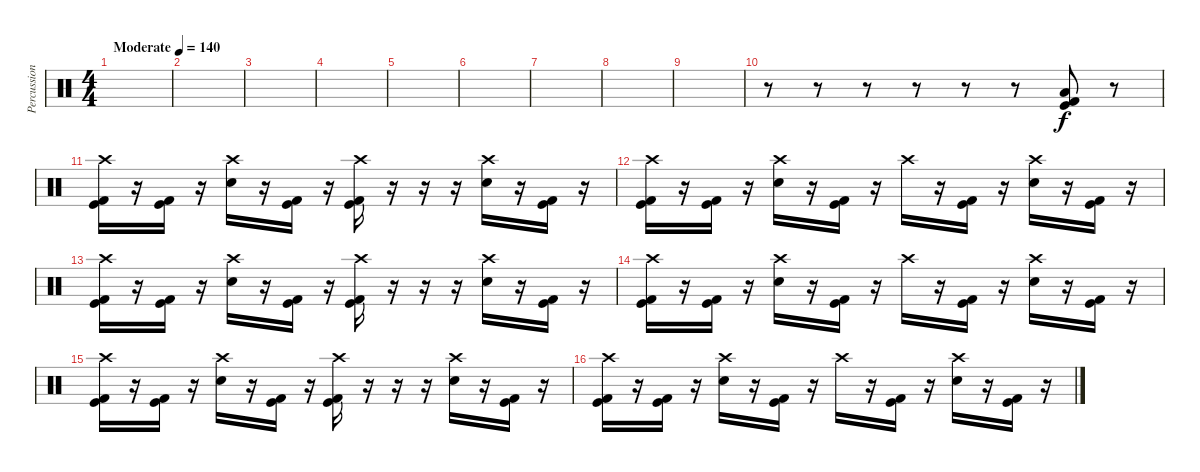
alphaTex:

\track ("Percussion" "Percussion") {instrument percussion}
\staff {score}
\articulation defaults
\ts (4 4)
\tempo (140 "Moderate")
\clef neutral
\ks c
|
|
|
|
|
|
|
|
|
r.8 r.8 r.8 r.8 r.8 r.8 ("Low Tom (hit)" "Kick (hit)" "Kick (hit) 2").8 r.8 |
("Crash high (hit)" "Kick (hit)" "Kick (hit) 2").16 r.16 ("Kick (hit)" "Kick (hit) 2").16 r.16 ("Crash high (hit)" "Electric Snare (hit)").16 r.16 ("Kick (hit)" "Kick (hit) 2").16 r.16 ("Crash high (hit)" "Kick (hit)" "Kick (hit) 2").16 r.16 r.16 r.16 ("Crash high (hit)" "Electric Snare (hit)").16 r.16 ("Kick (hit)" "Kick (hit) 2").16 r.16 |
("Crash high (hit)" "Kick (hit)" "Kick (hit) 2").16 r.16 ("Kick (hit)" "Kick (hit) 2").16 r.16 ("Crash high (hit)" "Electric Snare (hit)").16 r.16 ("Kick (hit)" "Kick (hit) 2").16 r.16 "Crash high (hit)".16 r.16 ("Kick (hit)" "Kick (hit) 2").16 r.16 ("Crash high (hit)" "Electric Snare (hit)").16 r.16 ("Kick (hit)" "Kick (hit) 2").16 r.16 |
("Crash high (hit)" "Kick (hit)" "Kick (hit) 2").16 r.16 ("Kick (hit)" "Kick (hit) 2").16 r.16 ("Crash high (hit)" "Electric Snare (hit)").16 r.16 ("Kick (hit)" "Kick (hit) 2").16 r.16 ("Crash high (hit)" "Kick (hit)" "Kick (hit) 2").16 r.16 r.16 r.16 ("Crash high (hit)" "Electric Snare (hit)").16 r.16 ("Kick (hit)" "Kick (hit) 2").16 r.16 |
("Crash high (hit)" "Kick (hit)" "Kick (hit) 2").16 r.16 ("Kick (hit)" "Kick (hit) 2").16 r.16 ("Crash high (hit)" "Electric Snare (hit)").16 r.16 ("Kick (hit)" "Kick (hit) 2").16 r.16 "Crash high (hit)".16 r.16 ("Kick (hit)" "Kick (hit) 2").16 r.16 ("Crash high (hit)" "Electric Snare (hit)").16 r.16 ("Kick (hit)" "Kick (hit) 2").16 r.16 |
("Crash high (hit)" "Kick (hit)" "Kick (hit) 2").16 r.16 ("Kick (hit)" "Kick (hit) 2").16 r.16 ("Crash high (hit)" "Electric Snare (hit)").16 r.16 ("Kick (hit)" "Kick (hit) 2").16 r.16 ("Crash high (hit)" "Kick (hit)" "Kick (hit) 2").16 r.16 r.16 r.16 ("Crash high (hit)" "Electric Snare (hit)").16 r.16 ("Kick (hit)" "Kick (hit) 2").16 r.16 |
("Crash high (hit)" "Kick (hit)" "Kick (hit) 2").16 r.16 ("Kick (hit)" "Kick (hit) 2").16 r.16 ("Crash high (hit)" "Electric Snare (hit)").16 r.16 ("Kick (hit)" "Kick (hit) 2").16 r.16 "Crash high (hit)".16 r.16 ("Kick (hit)" "Kick (hit) 2").16 r.16 ("Crash high (hit)" "Electric Snare (hit)").16 r.16 ("Kick (hit)" "Kick (hit) 2").16 r.16
